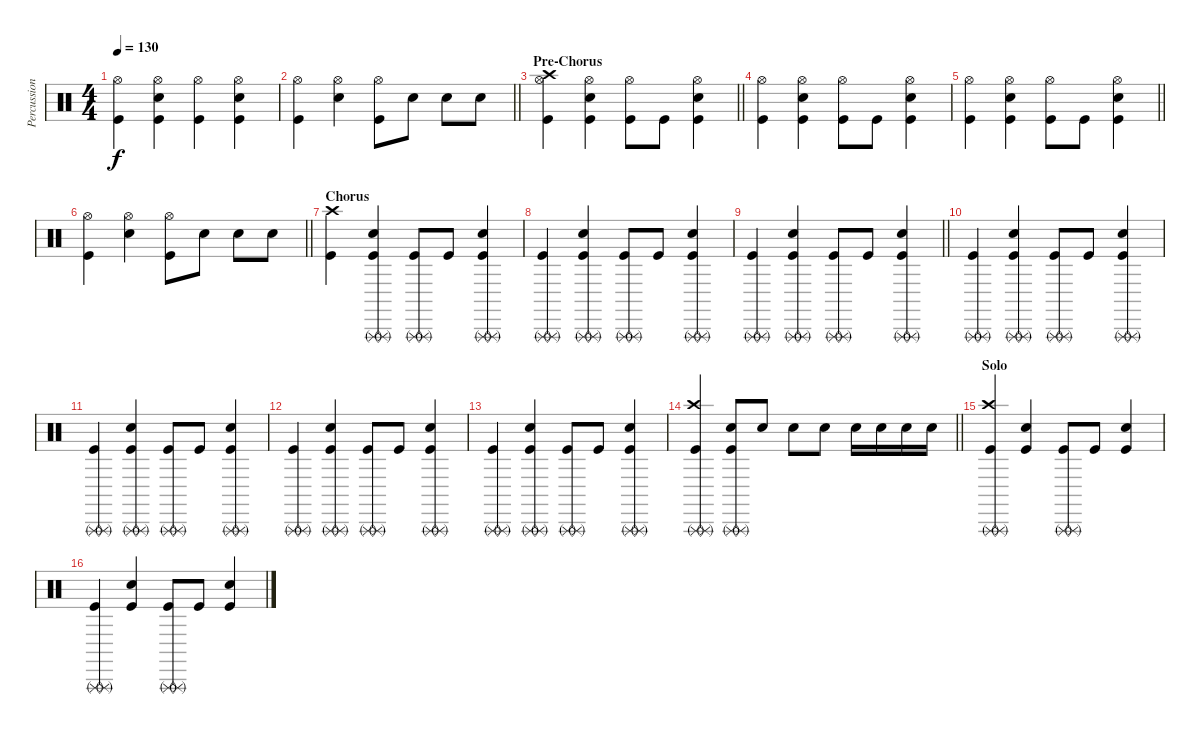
\track ("Percussion" "Percussion") {instrument percussion}
\staff {score}
\articulation defaults
\ts (4 4)
\section ("" "")
\tempo 130
\clef neutral
\ks c
("Hi-Hat (open)" "Kick (hit)").4{dy f} ("Hi-Hat (open)" "Snare (hit) 2" "Kick (hit)").4 ("Hi-Hat (open)" "Kick (hit)").4 ("Hi-Hat (open)" "Snare (hit) 2" "Kick (hit)").4 |
\barLineRight lightlight
("Hi-Hat (open)" "Kick (hit)").4 ("Hi-Hat (open)" "Snare (hit) 2").4 ("Hi-Hat (open)" "Kick (hit)").8 "Snare (hit) 2".8 "Snare (hit) 2".8 "Snare (hit) 2".8 |
\section ("" "Pre-Chorus")
\barLineRight lightlight
("Crash high (hit)" "Hi-Hat (open)" "Kick (hit)").4 ("Hi-Hat (open)" "Snare (hit) 2" "Kick (hit)").4 ("Hi-Hat (open)" "Kick (hit)").8 "Kick (hit)".8 ("Hi-Hat (open)" "Snare (hit) 2" "Kick (hit)").4 |
("Hi-Hat (open)" "Kick (hit)").4 ("Hi-Hat (open)" "Snare (hit) 2" "Kick (hit)").4 ("Hi-Hat (open)" "Kick (hit)").8 "Kick (hit)".8 ("Hi-Hat (open)" "Snare (hit) 2" "Kick (hit)").4 |
\barLineRight lightlight
("Hi-Hat (open)" "Kick (hit)").4 ("Hi-Hat (open)" "Snare (hit) 2" "Kick (hit)").4 ("Hi-Hat (open)" "Kick (hit)").8 "Kick (hit)".8 ("Hi-Hat (open)" "Snare (hit) 2" "Kick (hit)").4 |
\barLineRight lightlight
("Hi-Hat (open)" "Kick (hit)").4 ("Hi-Hat (open)" "Snare (hit) 2").4 ("Hi-Hat (open)" "Kick (hit)").8 "Snare (hit) 2".8 "Snare (hit) 2".8 "Snare (hit) 2".8 |
\section ("" "Chorus")
("Crash high (hit)" "Kick (hit)").4 ("Triangle (rnute)" "Triangle (rnute)" "Snare (hit) 2" "Kick (hit)").4 ("Triangle (rnute)" "Triangle (rnute)" "Kick (hit)").8 "Kick (hit)".8 ("Triangle (rnute)" "Triangle (rnute)" "Snare (hit) 2" "Kick (hit)").4 |
("Triangle (rnute)" "Triangle (rnute)" "Kick (hit)").4 ("Triangle (rnute)" "Triangle (rnute)" "Snare (hit) 2" "Kick (hit)").4 ("Triangle (rnute)" "Triangle (rnute)" "Kick (hit)").8 "Kick (hit)".8 ("Triangle (rnute)" "Triangle (rnute)" "Snare (hit) 2" "Kick (hit)").4 |
\barLineRight lightlight
("Triangle (rnute)" "Triangle (rnute)" "Kick (hit)").4 ("Triangle (rnute)" "Triangle (rnute)" "Snare (hit) 2" "Kick (hit)").4 ("Triangle (rnute)" "Triangle (rnute)" "Kick (hit)").8 "Kick (hit)".8 ("Triangle (rnute)" "Triangle (rnute)" "Snare (hit) 2" "Kick (hit)").4 |
("Triangle (rnute)" "Triangle (rnute)" "Kick (hit)").4 ("Triangle (rnute)" "Triangle (rnute)" "Snare (hit) 2" "Kick (hit)").4 ("Triangle (rnute)" "Triangle (rnute)" "Kick (hit)").8 "Kick (hit)".8 ("Triangle (rnute)" "Triangle (rnute)" "Snare (hit) 2" "Kick (hit)").4 |
("Triangle (rnute)" "Triangle (rnute)" "Kick (hit)").4 ("Triangle (rnute)" "Triangle (rnute)" "Snare (hit) 2" "Kick (hit)").4 ("Triangle (rnute)" "Triangle (rnute)" "Kick (hit)").8 "Kick (hit)".8 ("Triangle (rnute)" "Triangle (rnute)" "Snare (hit) 2" "Kick (hit)").4 |
("Triangle (rnute)" "Triangle (rnute)" "Kick (hit)").4 ("Triangle (rnute)" "Triangle (rnute)" "Snare (hit) 2" "Kick (hit)").4 ("Triangle (rnute)" "Triangle (rnute)" "Kick (hit)").8 "Kick (hit)".8 ("Triangle (rnute)" "Triangle (rnute)" "Snare (hit) 2" "Kick (hit)").4 |
("Triangle (rnute)" "Triangle (rnute)" "Kick (hit)").4 ("Triangle (rnute)" "Triangle (rnute)" "Snare (hit) 2" "Kick (hit)").4 ("Triangle (rnute)" "Triangle (rnute)" "Kick (hit)").8 "Kick (hit)".8 ("Triangle (rnute)" "Triangle (rnute)" "Snare (hit) 2" "Kick (hit)").4 |
\barLineRight lightlight
("Crash high (hit)" "Triangle (rnute)" "Triangle (rnute)" "Kick (hit)").4 ("Triangle (rnute)" "Triangle (rnute)" "Snare (hit) 2" "Kick (hit)").8 "Snare (hit) 2".8 "Snare (hit) 2".8 "Snare (hit) 2".8 "Snare (hit) 2".16 "Snare (hit) 2".16 "Snare (hit) 2".16 "Snare (hit) 2".16 |
\section ("" "Solo")
("Crash high (hit)" "Triangle (rnute)" "Triangle (rnute)" "Kick (hit)").4 ("Snare (hit) 2" "Kick (hit)").4 ("Triangle (rnute)" "Triangle (rnute)" "Kick (hit)").8 "Kick (hit)".8 ("Snare (hit) 2" "Kick (hit)").4 |
("Triangle (rnute)" "Triangle (rnute)" "Kick (hit)").4 ("Snare (hit) 2" "Kick (hit)").4 ("Triangle (rnute)" "Triangle (rnute)" "Kick (hit)").8 "Kick (hit)".8 ("Snare (hit) 2" "Kick (hit)").4
